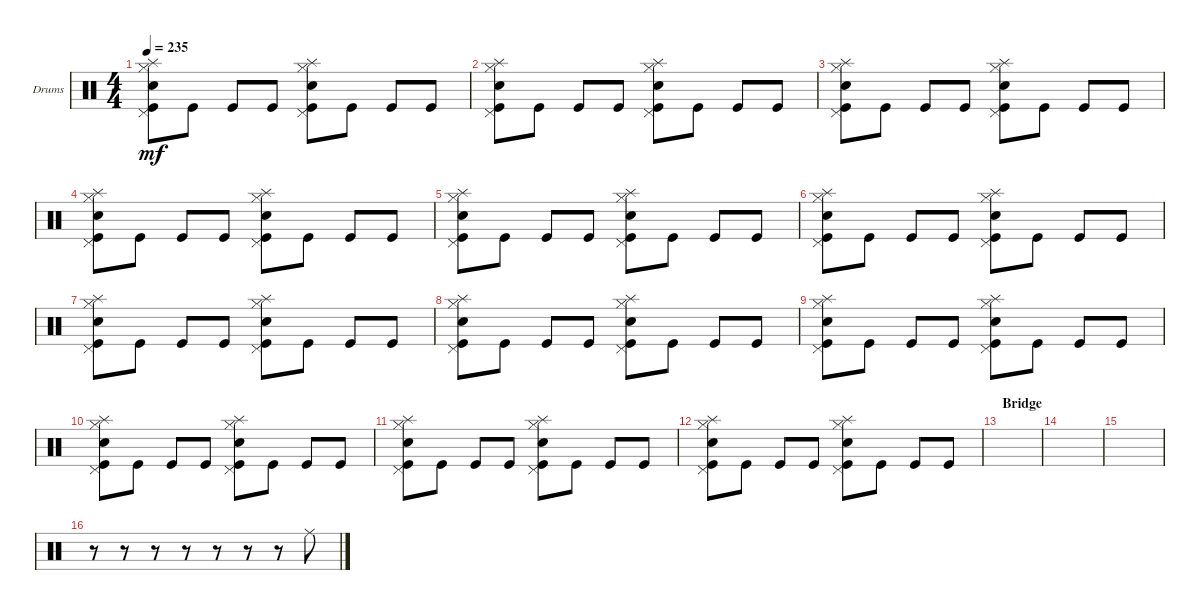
\defaultSystemsLayout 4
\bracketExtendMode groupsimilarinstruments
\firstSystemTrackNameOrientation horizontal
\otherSystemsTrackNameOrientation horizontal
\track ("Drumkit" "Drums") {instrument percussion}
\staff {score}
\articulation defaults
\ts (4 4)
\tempo 235
\clef neutral
\scale
0.333333
\ks c
("Kick (hit)" "Snare (hit) 2" "Pedal Hi-Hat (hit)" "Hi-Hat (closed)" "Splash (hit)").8{dy mf} "Kick (hit)".8 "Kick (hit)".8 "Kick (hit)".8 ("Kick (hit)" "Pedal Hi-Hat (hit)" "Snare (hit) 2" "Hi-Hat (closed)" "Splash (hit)").8 "Kick (hit)".8 "Kick (hit)".8 "Kick (hit)".8 |
\scale
0.333333 ("Kick (hit)" "Snare (hit) 2" "Pedal Hi-Hat (hit)" "Hi-Hat (closed)" "Splash (hit)").8 "Kick (hit)".8 "Kick (hit)".8 "Kick (hit)".8 ("Kick (hit)" "Pedal Hi-Hat (hit)" "Snare (hit) 2" "Hi-Hat (closed)" "Splash (hit)").8 "Kick (hit)".8 "Kick (hit)".8 "Kick (hit)".8 |
\scale
0.333333 ("Kick (hit)" "Snare (hit) 2" "Pedal Hi-Hat (hit)" "Hi-Hat (closed)" "Splash (hit)").8 "Kick (hit)".8 "Kick (hit)".8 "Kick (hit)".8 ("Kick (hit)" "Pedal Hi-Hat (hit)" "Snare (hit) 2" "Hi-Hat (closed)" "Splash (hit)").8 "Kick (hit)".8 "Kick (hit)".8 "Kick (hit)".8 |
\scale
0.333333 ("Kick (hit)" "Snare (hit) 2" "Pedal Hi-Hat (hit)" "Hi-Hat (closed)" "Splash (hit)").8 "Kick (hit)".8 "Kick (hit)".8 "Kick (hit)".8 ("Kick (hit)" "Pedal Hi-Hat (hit)" "Snare (hit) 2" "Hi-Hat (closed)" "Splash (hit)").8 "Kick (hit)".8 "Kick (hit)".8 "Kick (hit)".8 |
\scale
0.333333 ("Kick (hit)" "Snare (hit) 2" "Pedal Hi-Hat (hit)" "Hi-Hat (closed)" "Splash (hit)").8 "Kick (hit)".8 "Kick (hit)".8 "Kick (hit)".8 ("Kick (hit)" "Pedal Hi-Hat (hit)" "Snare (hit) 2" "Hi-Hat (closed)" "Splash (hit)").8 "Kick (hit)".8 "Kick (hit)".8 "Kick (hit)".8 |
\scale
0.333333 ("Kick (hit)" "Snare (hit) 2" "Pedal Hi-Hat (hit)" "Hi-Hat (closed)" "Splash (hit)").8 "Kick (hit)".8 "Kick (hit)".8 "Kick (hit)".8 ("Kick (hit)" "Pedal Hi-Hat (hit)" "Snare (hit) 2" "Hi-Hat (closed)" "Splash (hit)").8 "Kick (hit)".8 "Kick (hit)".8 "Kick (hit)".8 |
\scale
0.333333 ("Kick (hit)" "Snare (hit) 2" "Pedal Hi-Hat (hit)" "Hi-Hat (closed)" "Splash (hit)").8 "Kick (hit)".8 "Kick (hit)".8 "Kick (hit)".8 ("Kick (hit)" "Pedal Hi-Hat (hit)" "Snare (hit) 2" "Hi-Hat (closed)" "Splash (hit)").8 "Kick (hit)".8 "Kick (hit)".8 "Kick (hit)".8 |
\scale
0.333333 ("Kick (hit)" "Snare (hit) 2" "Pedal Hi-Hat (hit)" "Hi-Hat (closed)" "Splash (hit)").8 "Kick (hit)".8 "Kick (hit)".8 "Kick (hit)".8 ("Kick (hit)" "Pedal Hi-Hat (hit)" "Snare (hit) 2" "Hi-Hat (closed)" "Splash (hit)").8 "Kick (hit)".8 "Kick (hit)".8 "Kick (hit)".8 |
\scale
0.333333 ("Kick (hit)" "Snare (hit) 2" "Pedal Hi-Hat (hit)" "Hi-Hat (closed)" "Splash (hit)").8 "Kick (hit)".8 "Kick (hit)".8 "Kick (hit)".8 ("Kick (hit)" "Pedal Hi-Hat (hit)" "Snare (hit) 2" "Hi-Hat (closed)" "Splash (hit)").8 "Kick (hit)".8 "Kick (hit)".8 "Kick (hit)".8 |
\scale
0.333333 ("Kick (hit)" "Snare (hit) 2" "Pedal Hi-Hat (hit)" "Hi-Hat (closed)" "Splash (hit)").8 "Kick (hit)".8 "Kick (hit)".8 "Kick (hit)".8 ("Kick (hit)" "Pedal Hi-Hat (hit)" "Snare (hit) 2" "Hi-Hat (closed)" "Splash (hit)").8 "Kick (hit)".8 "Kick (hit)".8 "Kick (hit)".8 |
\scale
0.333333 ("Kick (hit)" "Snare (hit) 2" "Pedal Hi-Hat (hit)" "Hi-Hat (closed)" "Splash (hit)").8 "Kick (hit)".8 "Kick (hit)".8 "Kick (hit)".8 ("Kick (hit)" "Pedal Hi-Hat (hit)" "Snare (hit) 2" "Hi-Hat (closed)" "Splash (hit)").8 "Kick (hit)".8 "Kick (hit)".8 "Kick (hit)".8 |
\scale
0.333333 ("Kick (hit)" "Snare (hit) 2" "Pedal Hi-Hat (hit)" "Hi-Hat (closed)" "Splash (hit)").8 "Kick (hit)".8 "Kick (hit)".8 "Kick (hit)".8 ("Kick (hit)" "Pedal Hi-Hat (hit)" "Snare (hit) 2" "Hi-Hat (closed)" "Splash (hit)").8 "Kick (hit)".8 "Kick (hit)".8 "Kick (hit)".8 |
\section ("" "Bridge")
\scale
0.333333 |
\scale
0.333333 |
\scale
0.333333 |
\scale
0.333333 r.8 r.8 r.8 r.8 r.8 r.8 r.8 "Ride (middle)".8
